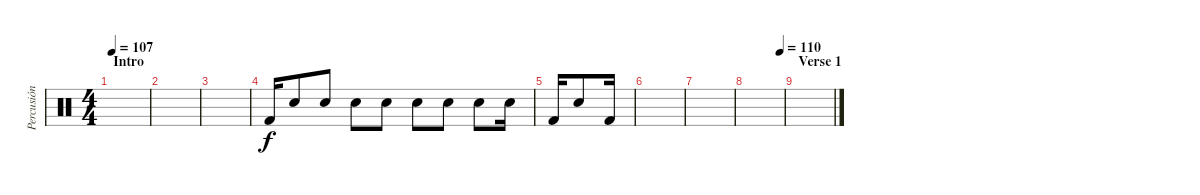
\track ("Percusión" "Percusión") {instrument percussion}
\staff {score}
\articulation defaults
\ts (4 4)
\section ("" "Intro")
\tempo 107
\clef neutral
\ks c
|
|
|
"Kick (hit) 2".16 "Electric Snare (hit)".8 "Electric Snare (hit)".8 "Electric Snare (hit)".8 "Electric Snare (hit)".8 "Electric Snare (hit)".8 "Electric Snare (hit)".8 "Electric Snare (hit)".8 "Electric Snare (hit)".16 |
"Kick (hit) 2".16 "Electric Snare (hit)".8 "Kick (hit) 2".16 |
|
|
\tempo (110 0.90625)
|
\section ("" "Verse 1")
